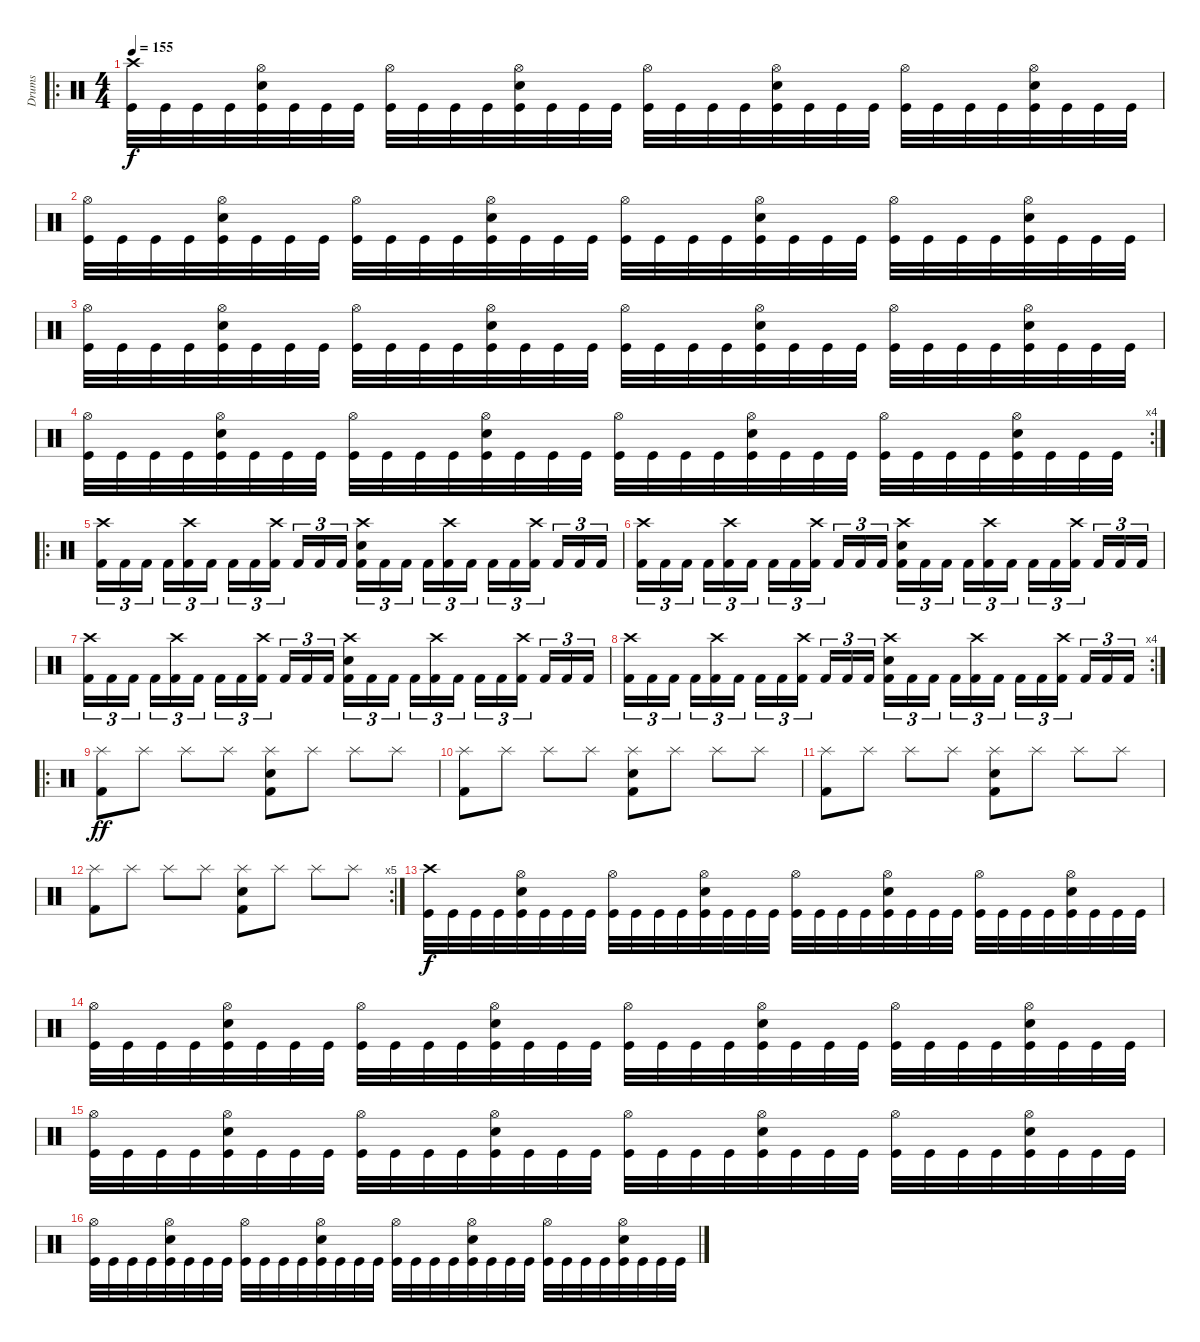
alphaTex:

\track ("Drums" "Drums") {instrument percussion}
\staff {score}
\articulation defaults
\ro
\ts (4 4)
\tempo 155
\clef neutral
\ks c
("Kick (hit)" "Crash high (hit)").32{dy f} "Kick (hit)".32 "Kick (hit)".32 "Kick (hit)".32 ("Kick (hit)" "Snare (hit) 2" "Hi-Hat (open)").32 "Kick (hit)".32 "Kick (hit)".32 "Kick (hit)".32 ("Kick (hit)" "Hi-Hat (open)").32 "Kick (hit)".32 "Kick (hit)".32 "Kick (hit)".32 ("Kick (hit)" "Snare (hit) 2" "Hi-Hat (open)").32 "Kick (hit)".32 "Kick (hit)".32 "Kick (hit)".32 ("Kick (hit)" "Hi-Hat (open)").32 "Kick (hit)".32 "Kick (hit)".32 "Kick (hit)".32 ("Kick (hit)" "Snare (hit) 2" "Hi-Hat (open)").32 "Kick (hit)".32 "Kick (hit)".32 "Kick (hit)".32 ("Kick (hit)" "Hi-Hat (open)").32 "Kick (hit)".32 "Kick (hit)".32 "Kick (hit)".32 ("Kick (hit)" "Snare (hit) 2" "Hi-Hat (open)").32 "Kick (hit)".32 "Kick (hit)".32 "Kick (hit)".32 |
("Kick (hit)" "Hi-Hat (open)").32 "Kick (hit)".32 "Kick (hit)".32 "Kick (hit)".32 ("Kick (hit)" "Snare (hit) 2" "Hi-Hat (open)").32 "Kick (hit)".32 "Kick (hit)".32 "Kick (hit)".32 ("Kick (hit)" "Hi-Hat (open)").32 "Kick (hit)".32 "Kick (hit)".32 "Kick (hit)".32 ("Kick (hit)" "Snare (hit) 2" "Hi-Hat (open)").32 "Kick (hit)".32 "Kick (hit)".32 "Kick (hit)".32 ("Kick (hit)" "Hi-Hat (open)").32 "Kick (hit)".32 "Kick (hit)".32 "Kick (hit)".32 ("Kick (hit)" "Snare (hit) 2" "Hi-Hat (open)").32 "Kick (hit)".32 "Kick (hit)".32 "Kick (hit)".32 ("Kick (hit)" "Hi-Hat (open)").32 "Kick (hit)".32 "Kick (hit)".32 "Kick (hit)".32 ("Kick (hit)" "Snare (hit) 2" "Hi-Hat (open)").32 "Kick (hit)".32 "Kick (hit)".32 "Kick (hit)".32 |
("Kick (hit)" "Hi-Hat (open)").32 "Kick (hit)".32 "Kick (hit)".32 "Kick (hit)".32 ("Kick (hit)" "Snare (hit) 2" "Hi-Hat (open)").32 "Kick (hit)".32 "Kick (hit)".32 "Kick (hit)".32 ("Kick (hit)" "Hi-Hat (open)").32 "Kick (hit)".32 "Kick (hit)".32 "Kick (hit)".32 ("Kick (hit)" "Snare (hit) 2" "Hi-Hat (open)").32 "Kick (hit)".32 "Kick (hit)".32 "Kick (hit)".32 ("Kick (hit)" "Hi-Hat (open)").32 "Kick (hit)".32 "Kick (hit)".32 "Kick (hit)".32 ("Kick (hit)" "Snare (hit) 2" "Hi-Hat (open)").32 "Kick (hit)".32 "Kick (hit)".32 "Kick (hit)".32 ("Kick (hit)" "Hi-Hat (open)").32 "Kick (hit)".32 "Kick (hit)".32 "Kick (hit)".32 ("Kick (hit)" "Snare (hit) 2" "Hi-Hat (open)").32 "Kick (hit)".32 "Kick (hit)".32 "Kick (hit)".32 |
\rc 4
("Kick (hit)" "Hi-Hat (open)").32 "Kick (hit)".32 "Kick (hit)".32 "Kick (hit)".32 ("Kick (hit)" "Snare (hit) 2" "Hi-Hat (open)").32 "Kick (hit)".32 "Kick (hit)".32 "Kick (hit)".32 ("Kick (hit)" "Hi-Hat (open)").32 "Kick (hit)".32 "Kick (hit)".32 "Kick (hit)".32 ("Kick (hit)" "Snare (hit) 2" "Hi-Hat (open)").32 "Kick (hit)".32 "Kick (hit)".32 "Kick (hit)".32 ("Kick (hit)" "Hi-Hat (open)").32 "Kick (hit)".32 "Kick (hit)".32 "Kick (hit)".32 ("Kick (hit)" "Snare (hit) 2" "Hi-Hat (open)").32 "Kick (hit)".32 "Kick (hit)".32 "Kick (hit)".32 ("Kick (hit)" "Hi-Hat (open)").32 "Kick (hit)".32 "Kick (hit)".32 "Kick (hit)".32 ("Kick (hit)" "Snare (hit) 2" "Hi-Hat (open)").32 "Kick (hit)".32 "Kick (hit)".32 "Kick (hit)".32 |
\ro
("Crash high (hit)" "Kick (hit) 2").16{tu (3 2)} "Kick (hit) 2".16{tu (3 2)} "Kick (hit) 2".16{tu (3 2)} "Kick (hit) 2".16{tu (3 2)} ("Crash high (hit)" "Kick (hit) 2").16{tu (3 2)} "Kick (hit) 2".16{tu (3 2)} "Kick (hit) 2".16{tu (3 2)} "Kick (hit) 2".16{tu (3 2)} ("Crash high (hit)" "Kick (hit) 2").16{tu (3 2)} "Kick (hit) 2".16{tu (3 2)} "Kick (hit) 2".16{tu (3 2)} "Kick (hit) 2".16{tu (3 2)} ("Crash high (hit)" "Electric Snare (hit)" "Kick (hit) 2").16{tu (3 2)} "Kick (hit) 2".16{tu (3 2)} "Kick (hit) 2".16{tu (3 2)} "Kick (hit) 2".16{tu (3 2)} ("Crash high (hit)" "Kick (hit) 2").16{tu (3 2)} "Kick (hit) 2".16{tu (3 2)} "Kick (hit) 2".16{tu (3 2)} "Kick (hit) 2".16{tu (3 2)} ("Crash high (hit)" "Kick (hit) 2").16{tu (3 2)} "Kick (hit) 2".16{tu (3 2)} "Kick (hit) 2".16{tu (3 2)} "Kick (hit) 2".16{tu (3 2)} |
("Crash high (hit)" "Kick (hit) 2").16{tu (3 2)} "Kick (hit) 2".16{tu (3 2)} "Kick (hit) 2".16{tu (3 2)} "Kick (hit) 2".16{tu (3 2)} ("Crash high (hit)" "Kick (hit) 2").16{tu (3 2)} "Kick (hit) 2".16{tu (3 2)} "Kick (hit) 2".16{tu (3 2)} "Kick (hit) 2".16{tu (3 2)} ("Crash high (hit)" "Kick (hit) 2").16{tu (3 2)} "Kick (hit) 2".16{tu (3 2)} "Kick (hit) 2".16{tu (3 2)} "Kick (hit) 2".16{tu (3 2)} ("Crash high (hit)" "Electric Snare (hit)" "Kick (hit) 2").16{tu (3 2)} "Kick (hit) 2".16{tu (3 2)} "Kick (hit) 2".16{tu (3 2)} "Kick (hit) 2".16{tu (3 2)} ("Crash high (hit)" "Kick (hit) 2").16{tu (3 2)} "Kick (hit) 2".16{tu (3 2)} "Kick (hit) 2".16{tu (3 2)} "Kick (hit) 2".16{tu (3 2)} ("Crash high (hit)" "Kick (hit) 2").16{tu (3 2)} "Kick (hit) 2".16{tu (3 2)} "Kick (hit) 2".16{tu (3 2)} "Kick (hit) 2".16{tu (3 2)} |
("Crash high (hit)" "Kick (hit) 2").16{tu (3 2)} "Kick (hit) 2".16{tu (3 2)} "Kick (hit) 2".16{tu (3 2)} "Kick (hit) 2".16{tu (3 2)} ("Crash high (hit)" "Kick (hit) 2").16{tu (3 2)} "Kick (hit) 2".16{tu (3 2)} "Kick (hit) 2".16{tu (3 2)} "Kick (hit) 2".16{tu (3 2)} ("Crash high (hit)" "Kick (hit) 2").16{tu (3 2)} "Kick (hit) 2".16{tu (3 2)} "Kick (hit) 2".16{tu (3 2)} "Kick (hit) 2".16{tu (3 2)} ("Crash high (hit)" "Electric Snare (hit)" "Kick (hit) 2").16{tu (3 2)} "Kick (hit) 2".16{tu (3 2)} "Kick (hit) 2".16{tu (3 2)} "Kick (hit) 2".16{tu (3 2)} ("Crash high (hit)" "Kick (hit) 2").16{tu (3 2)} "Kick (hit) 2".16{tu (3 2)} "Kick (hit) 2".16{tu (3 2)} "Kick (hit) 2".16{tu (3 2)} ("Crash high (hit)" "Kick (hit) 2").16{tu (3 2)} "Kick (hit) 2".16{tu (3 2)} "Kick (hit) 2".16{tu (3 2)} "Kick (hit) 2".16{tu (3 2)} |
\rc 4
("Crash high (hit)" "Kick (hit) 2").16{tu (3 2)} "Kick (hit) 2".16{tu (3 2)} "Kick (hit) 2".16{tu (3 2)} "Kick (hit) 2".16{tu (3 2)} ("Crash high (hit)" "Kick (hit) 2").16{tu (3 2)} "Kick (hit) 2".16{tu (3 2)} "Kick (hit) 2".16{tu (3 2)} "Kick (hit) 2".16{tu (3 2)} ("Crash high (hit)" "Kick (hit) 2").16{tu (3 2)} "Kick (hit) 2".16{tu (3 2)} "Kick (hit) 2".16{tu (3 2)} "Kick (hit) 2".16{tu (3 2)} ("Crash high (hit)" "Electric Snare (hit)" "Kick (hit) 2").16{tu (3 2)} "Kick (hit) 2".16{tu (3 2)} "Kick (hit) 2".16{tu (3 2)} "Kick (hit) 2".16{tu (3 2)} ("Crash high (hit)" "Kick (hit) 2").16{tu (3 2)} "Kick (hit) 2".16{tu (3 2)} "Kick (hit) 2".16{tu (3 2)} "Kick (hit) 2".16{tu (3 2)} ("Crash high (hit)" "Kick (hit) 2").16{tu (3 2)} "Kick (hit) 2".16{tu (3 2)} "Kick (hit) 2".16{tu (3 2)} "Kick (hit) 2".16{tu (3 2)} |
\ro
("Kick (hit) 2" "Splash (hit)").8{dy ff} "Splash (hit)".8 "Splash (hit)".8 "Splash (hit)".8 ("Kick (hit) 2" "Electric Snare (hit)" "Splash (hit)").8 "Splash (hit)".8 "Splash (hit)".8 "Splash (hit)".8 |
("Kick (hit) 2" "Splash (hit)").8 "Splash (hit)".8 "Splash (hit)".8 "Splash (hit)".8 ("Kick (hit) 2" "Electric Snare (hit)" "Splash (hit)").8 "Splash (hit)".8 "Splash (hit)".8 "Splash (hit)".8 |
("Kick (hit) 2" "Splash (hit)").8 "Splash (hit)".8 "Splash (hit)".8 "Splash (hit)".8 ("Kick (hit) 2" "Electric Snare (hit)" "Splash (hit)").8 "Splash (hit)".8 "Splash (hit)".8 "Splash (hit)".8 |
\rc 5
("Kick (hit) 2" "Splash (hit)").8 "Splash (hit)".8 "Splash (hit)".8 "Splash (hit)".8 ("Kick (hit) 2" "Electric Snare (hit)" "Splash (hit)").8 "Splash (hit)".8 "Splash (hit)".8 "Splash (hit)".8 |
("Kick (hit)" "Crash high (hit)").32{dy f} "Kick (hit)".32 "Kick (hit)".32 "Kick (hit)".32 ("Kick (hit)" "Snare (hit) 2" "Hi-Hat (open)").32 "Kick (hit)".32 "Kick (hit)".32 "Kick (hit)".32 ("Kick (hit)" "Hi-Hat (open)").32 "Kick (hit)".32 "Kick (hit)".32 "Kick (hit)".32 ("Kick (hit)" "Snare (hit) 2" "Hi-Hat (open)").32 "Kick (hit)".32 "Kick (hit)".32 "Kick (hit)".32 ("Kick (hit)" "Hi-Hat (open)").32 "Kick (hit)".32 "Kick (hit)".32 "Kick (hit)".32 ("Kick (hit)" "Snare (hit) 2" "Hi-Hat (open)").32 "Kick (hit)".32 "Kick (hit)".32 "Kick (hit)".32 ("Kick (hit)" "Hi-Hat (open)").32 "Kick (hit)".32 "Kick (hit)".32 "Kick (hit)".32 ("Kick (hit)" "Snare (hit) 2" "Hi-Hat (open)").32 "Kick (hit)".32 "Kick (hit)".32 "Kick (hit)".32 |
("Kick (hit)" "Hi-Hat (open)").32 "Kick (hit)".32 "Kick (hit)".32 "Kick (hit)".32 ("Kick (hit)" "Snare (hit) 2" "Hi-Hat (open)").32 "Kick (hit)".32 "Kick (hit)".32 "Kick (hit)".32 ("Kick (hit)" "Hi-Hat (open)").32 "Kick (hit)".32 "Kick (hit)".32 "Kick (hit)".32 ("Kick (hit)" "Snare (hit) 2" "Hi-Hat (open)").32 "Kick (hit)".32 "Kick (hit)".32 "Kick (hit)".32 ("Kick (hit)" "Hi-Hat (open)").32 "Kick (hit)".32 "Kick (hit)".32 "Kick (hit)".32 ("Kick (hit)" "Snare (hit) 2" "Hi-Hat (open)").32 "Kick (hit)".32 "Kick (hit)".32 "Kick (hit)".32 ("Kick (hit)" "Hi-Hat (open)").32 "Kick (hit)".32 "Kick (hit)".32 "Kick (hit)".32 ("Kick (hit)" "Snare (hit) 2" "Hi-Hat (open)").32 "Kick (hit)".32 "Kick (hit)".32 "Kick (hit)".32 |
("Kick (hit)" "Hi-Hat (open)").32 "Kick (hit)".32 "Kick (hit)".32 "Kick (hit)".32 ("Kick (hit)" "Snare (hit) 2" "Hi-Hat (open)").32 "Kick (hit)".32 "Kick (hit)".32 "Kick (hit)".32 ("Kick (hit)" "Hi-Hat (open)").32 "Kick (hit)".32 "Kick (hit)".32 "Kick (hit)".32 ("Kick (hit)" "Snare (hit) 2" "Hi-Hat (open)").32 "Kick (hit)".32 "Kick (hit)".32 "Kick (hit)".32 ("Kick (hit)" "Hi-Hat (open)").32 "Kick (hit)".32 "Kick (hit)".32 "Kick (hit)".32 ("Kick (hit)" "Snare (hit) 2" "Hi-Hat (open)").32 "Kick (hit)".32 "Kick (hit)".32 "Kick (hit)".32 ("Kick (hit)" "Hi-Hat (open)").32 "Kick (hit)".32 "Kick (hit)".32 "Kick (hit)".32 ("Kick (hit)" "Snare (hit) 2" "Hi-Hat (open)").32 "Kick (hit)".32 "Kick (hit)".32 "Kick (hit)".32 |
("Kick (hit)" "Hi-Hat (open)").32 "Kick (hit)".32 "Kick (hit)".32 "Kick (hit)".32 ("Kick (hit)" "Snare (hit) 2" "Hi-Hat (open)").32 "Kick (hit)".32 "Kick (hit)".32 "Kick (hit)".32 ("Kick (hit)" "Hi-Hat (open)").32 "Kick (hit)".32 "Kick (hit)".32 "Kick (hit)".32 ("Kick (hit)" "Snare (hit) 2" "Hi-Hat (open)").32 "Kick (hit)".32 "Kick (hit)".32 "Kick (hit)".32 ("Kick (hit)" "Hi-Hat (open)").32 "Kick (hit)".32 "Kick (hit)".32 "Kick (hit)".32 ("Kick (hit)" "Snare (hit) 2" "Hi-Hat (open)").32 "Kick (hit)".32 "Kick (hit)".32 "Kick (hit)".32 ("Kick (hit)" "Hi-Hat (open)").32 "Kick (hit)".32 "Kick (hit)".32 "Kick (hit)".32 ("Kick (hit)" "Snare (hit) 2" "Hi-Hat (open)").32 "Kick (hit)".32 "Kick (hit)".32 "Kick (hit)".32
